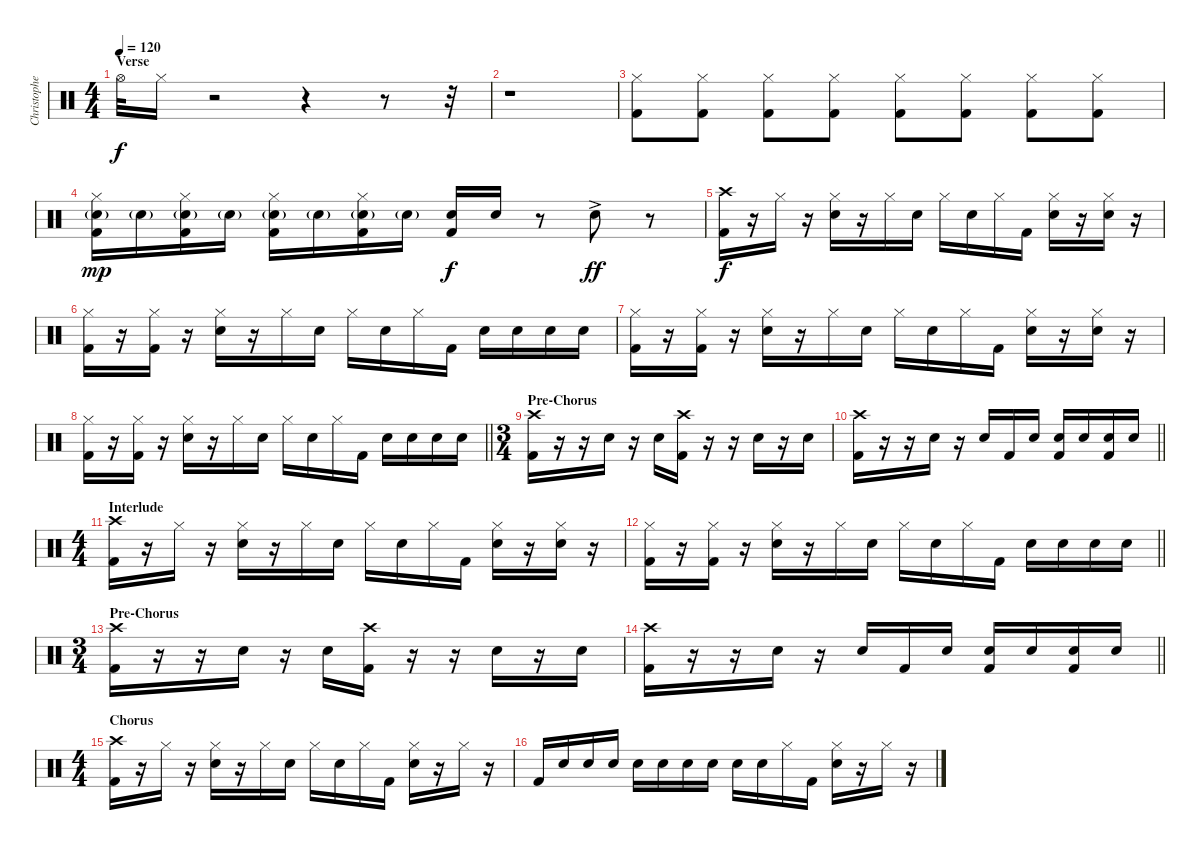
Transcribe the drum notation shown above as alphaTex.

\track ("Christopher - Drums" "Christophe") {instrument percussion}
\staff {score}
\articulation defaults
\ts (4 4)
\section ("" "Verse")
\tempo 120
\clef neutral
\ks c "Hi-Hat (open)".32{dy f} "Hi-Hat (closed)".16
r.2 r.4 r.8 r.32 |
r.1 |
("Hi-Hat (closed)" "Kick (hit) 2").8 ("Hi-Hat (closed)" "Kick (hit) 2").8 ("Hi-Hat (closed)" "Kick (hit) 2").8 ("Hi-Hat (closed)" "Kick (hit) 2").8 ("Hi-Hat (closed)" "Kick (hit) 2").8 ("Hi-Hat (closed)" "Kick (hit) 2").8 ("Hi-Hat (closed)" "Kick (hit) 2").8 ("Hi-Hat (closed)" "Kick (hit) 2").8 |
("Hi-Hat (closed)" "Electric Snare (hit)"{g} "Kick (hit) 2").16{dy mp} "Electric Snare (hit)"{g}.16 ("Hi-Hat (closed)" "Electric Snare (hit)"{g} "Kick (hit) 2").16 "Electric Snare (hit)"{g}.16 ("Hi-Hat (closed)" "Electric Snare (hit)"{g} "Kick (hit) 2").16 "Electric Snare (hit)"{g}.16 ("Hi-Hat (closed)" "Electric Snare (hit)"{g} "Kick (hit) 2").16 "Electric Snare (hit)"{g}.16 ("Electric Snare (hit)" "Kick (hit) 2").16{dy f} "Electric Snare (hit)".16 r.8 "Electric Snare (hit)"{ac}.8{dy ff} r.8 |
("Crash high (hit)" "Kick (hit) 2").16{dy f} r.16 "Hi-Hat (closed)".16 r.16 ("Hi-Hat (closed)" "Electric Snare (hit)").16 r.16 "Hi-Hat (closed)".16 "Electric Snare (hit)".16 "Hi-Hat (closed)".16 "Electric Snare (hit)".16 "Hi-Hat (closed)".16 "Kick (hit) 2".16 ("Hi-Hat (closed)" "Electric Snare (hit)").16 r.16 ("Hi-Hat (closed)" "Electric Snare (hit)").16 r.16 |
("Hi-Hat (closed)" "Kick (hit) 2").16 r.16 ("Hi-Hat (closed)" "Kick (hit) 2").16 r.16 ("Hi-Hat (closed)" "Electric Snare (hit)").16 r.16 "Hi-Hat (closed)".16 "Electric Snare (hit)".16 "Hi-Hat (closed)".16 "Electric Snare (hit)".16 "Hi-Hat (closed)".16 "Kick (hit) 2".16 "Electric Snare (hit)".16 "Electric Snare (hit)".16 "Electric Snare (hit)".16 "Electric Snare (hit)".16 |
("Hi-Hat (closed)" "Kick (hit) 2").16 r.16 ("Hi-Hat (closed)" "Kick (hit) 2").16 r.16 ("Hi-Hat (closed)" "Electric Snare (hit)").16 r.16 "Hi-Hat (closed)".16 "Electric Snare (hit)".16 "Hi-Hat (closed)".16 "Electric Snare (hit)".16 "Hi-Hat (closed)".16 "Kick (hit) 2".16 ("Hi-Hat (closed)" "Electric Snare (hit)").16 r.16 ("Hi-Hat (closed)" "Electric Snare (hit)").16 r.16 |
\barLineRight lightlight
("Hi-Hat (closed)" "Kick (hit) 2").16 r.16 ("Hi-Hat (closed)" "Kick (hit) 2").16 r.16 ("Hi-Hat (closed)" "Electric Snare (hit)").16 r.16 "Hi-Hat (closed)".16 "Electric Snare (hit)".16 "Hi-Hat (closed)".16 "Electric Snare (hit)".16 "Hi-Hat (closed)".16 "Kick (hit) 2".16 "Electric Snare (hit)".16 "Electric Snare (hit)".16 "Electric Snare (hit)".16 "Electric Snare (hit)".16 |
\ts (3 4)
\section ("" "Pre-Chorus")
("Crash high (hit)" "Kick (hit) 2").16 r.16 r.16 "Electric Snare (hit)".16 r.16 "Electric Snare (hit)".16 ("Crash high (hit)" "Kick (hit) 2").16 r.16 r.16 "Electric Snare (hit)".16 r.16 "Electric Snare (hit)".16 |
\barLineRight lightlight
("Crash high (hit)" "Kick (hit) 2").16 r.16 r.16 "Electric Snare (hit)".16 r.16 "Electric Snare (hit)".16 "Kick (hit) 2".16 "Electric Snare (hit)".16 ("Electric Snare (hit)" "Kick (hit) 2").16 "Electric Snare (hit)".16 ("Electric Snare (hit)" "Kick (hit) 2").16 "Electric Snare (hit)".16 |
\ts (4 4)
\section ("" "Interlude")
("Crash high (hit)" "Kick (hit) 2").16 r.16 "Hi-Hat (closed)".16 r.16 ("Hi-Hat (closed)" "Electric Snare (hit)").16 r.16 "Hi-Hat (closed)".16 "Electric Snare (hit)".16 "Hi-Hat (closed)".16 "Electric Snare (hit)".16 "Hi-Hat (closed)".16 "Kick (hit) 2".16 ("Hi-Hat (closed)" "Electric Snare (hit)").16 r.16 ("Hi-Hat (closed)" "Electric Snare (hit)").16 r.16 |
\barLineRight lightlight
("Hi-Hat (closed)" "Kick (hit) 2").16 r.16 ("Hi-Hat (closed)" "Kick (hit) 2").16 r.16 ("Hi-Hat (closed)" "Electric Snare (hit)").16 r.16 "Hi-Hat (closed)".16 "Electric Snare (hit)".16 "Hi-Hat (closed)".16 "Electric Snare (hit)".16 "Hi-Hat (closed)".16 "Kick (hit) 2".16 "Electric Snare (hit)".16 "Electric Snare (hit)".16 "Electric Snare (hit)".16 "Electric Snare (hit)".16 |
\ts (3 4)
\section ("" "Pre-Chorus")
("Crash high (hit)" "Kick (hit) 2").16 r.16 r.16 "Electric Snare (hit)".16 r.16 "Electric Snare (hit)".16 ("Crash high (hit)" "Kick (hit) 2").16 r.16 r.16 "Electric Snare (hit)".16 r.16 "Electric Snare (hit)".16 |
\barLineRight lightlight
("Crash high (hit)" "Kick (hit) 2").16 r.16 r.16 "Electric Snare (hit)".16 r.16 "Electric Snare (hit)".16 "Kick (hit) 2".16 "Electric Snare (hit)".16 ("Electric Snare (hit)" "Kick (hit) 2").16 "Electric Snare (hit)".16 ("Electric Snare (hit)" "Kick (hit) 2").16 "Electric Snare (hit)".16 |
\ts (4 4)
\section ("" "Chorus")
("Crash high (hit)" "Kick (hit) 2").16 r.16 "Hi-Hat (closed)".16 r.16 ("Hi-Hat (closed)" "Electric Snare (hit)").16 r.16 "Hi-Hat (closed)".16 "Electric Snare (hit)".16 "Hi-Hat (closed)".16 "Electric Snare (hit)".16 "Hi-Hat (closed)".16 "Kick (hit) 2".16 ("Hi-Hat (closed)" "Electric Snare (hit)").16 r.16 "Hi-Hat (closed)".16 r.16 |
"Kick (hit) 2".16 "Electric Snare (hit)".16 "Electric Snare (hit)".16 "Electric Snare (hit)".16 "Electric Snare (hit)".16 "Electric Snare (hit)".16 "Electric Snare (hit)".16 "Electric Snare (hit)".16 "Electric Snare (hit)".16 "Electric Snare (hit)".16 "Hi-Hat (closed)".16 "Kick (hit) 2".16 ("Hi-Hat (closed)" "Electric Snare (hit)").16 r.16 "Hi-Hat (closed)".16 r.16
